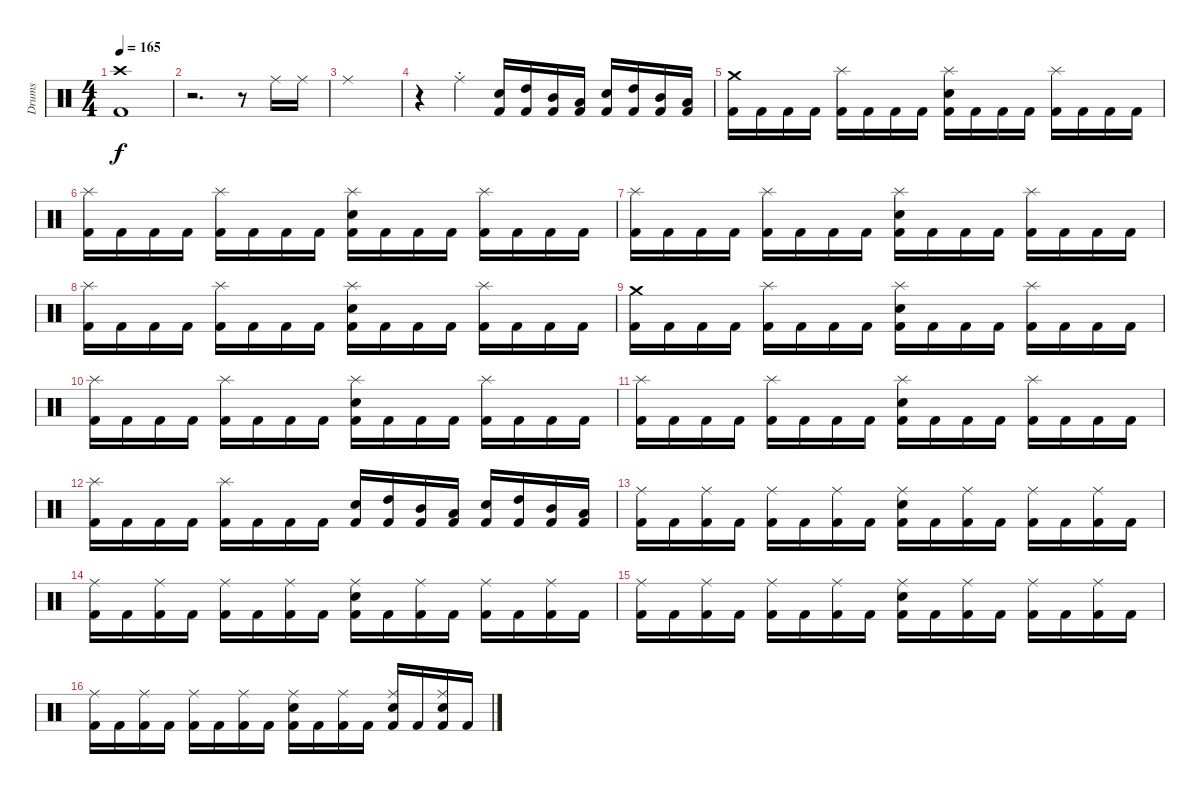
\track ("Drums" "Drums") {instrument percussion}
\staff {score}
\articulation defaults
\ts (4 4)
\tempo 165
\clef neutral
\ks c
("Crash high (hit)" "Kick (hit) 2").1{dy f} |
r.2{d} r.8 "Ride (middle)".16 "Ride (middle)".16 |
"Ride (middle)".1 |
r.4 "Ride (middle)"{st}.4 ("Snare (hit) 2" "Kick (hit) 2").16 ("High Tom (hit)" "Kick (hit) 2").16 ("Mid Tom (hit)" "Kick (hit) 2").16 ("Low Tom (hit)" "Kick (hit) 2").16 ("Snare (hit) 2" "Kick (hit) 2").16 ("High Tom (hit)" "Kick (hit) 2").16 ("Mid Tom (hit)" "Kick (hit) 2").16 ("Low Tom (hit)" "Kick (hit) 2").16 |
("Crash medium (hit)" "Kick (hit) 2").16 "Kick (hit) 2".16 "Kick (hit) 2".16 "Kick (hit) 2".16 ("Splash (hit)" "Kick (hit) 2").16 "Kick (hit) 2".16 "Kick (hit) 2".16 "Kick (hit) 2".16 ("Splash (hit)" "Snare (hit) 2" "Kick (hit) 2").16 "Kick (hit) 2".16 "Kick (hit) 2".16 "Kick (hit) 2".16 ("Splash (hit)" "Kick (hit) 2").16 "Kick (hit) 2".16 "Kick (hit) 2".16 "Kick (hit) 2".16 |
("Splash (hit)" "Kick (hit) 2").16 "Kick (hit) 2".16 "Kick (hit) 2".16 "Kick (hit) 2".16 ("Splash (hit)" "Kick (hit) 2").16 "Kick (hit) 2".16 "Kick (hit) 2".16 "Kick (hit) 2".16 ("Splash (hit)" "Snare (hit) 2" "Kick (hit) 2").16 "Kick (hit) 2".16 "Kick (hit) 2".16 "Kick (hit) 2".16 ("Splash (hit)" "Kick (hit) 2").16 "Kick (hit) 2".16 "Kick (hit) 2".16 "Kick (hit) 2".16 |
("Splash (hit)" "Kick (hit) 2").16 "Kick (hit) 2".16 "Kick (hit) 2".16 "Kick (hit) 2".16 ("Splash (hit)" "Kick (hit) 2").16 "Kick (hit) 2".16 "Kick (hit) 2".16 "Kick (hit) 2".16 ("Splash (hit)" "Snare (hit) 2" "Kick (hit) 2").16 "Kick (hit) 2".16 "Kick (hit) 2".16 "Kick (hit) 2".16 ("Splash (hit)" "Kick (hit) 2").16 "Kick (hit) 2".16 "Kick (hit) 2".16 "Kick (hit) 2".16 |
("Splash (hit)" "Kick (hit) 2").16 "Kick (hit) 2".16 "Kick (hit) 2".16 "Kick (hit) 2".16 ("Splash (hit)" "Kick (hit) 2").16 "Kick (hit) 2".16 "Kick (hit) 2".16 "Kick (hit) 2".16 ("Splash (hit)" "Snare (hit) 2" "Kick (hit) 2").16 "Kick (hit) 2".16 "Kick (hit) 2".16 "Kick (hit) 2".16 ("Splash (hit)" "Kick (hit) 2").16 "Kick (hit) 2".16 "Kick (hit) 2".16 "Kick (hit) 2".16 |
("Crash medium (hit)" "Kick (hit) 2").16 "Kick (hit) 2".16 "Kick (hit) 2".16 "Kick (hit) 2".16 ("Splash (hit)" "Kick (hit) 2").16 "Kick (hit) 2".16 "Kick (hit) 2".16 "Kick (hit) 2".16 ("Splash (hit)" "Snare (hit) 2" "Kick (hit) 2").16 "Kick (hit) 2".16 "Kick (hit) 2".16 "Kick (hit) 2".16 ("Splash (hit)" "Kick (hit) 2").16 "Kick (hit) 2".16 "Kick (hit) 2".16 "Kick (hit) 2".16 |
("Splash (hit)" "Kick (hit) 2").16 "Kick (hit) 2".16 "Kick (hit) 2".16 "Kick (hit) 2".16 ("Splash (hit)" "Kick (hit) 2").16 "Kick (hit) 2".16 "Kick (hit) 2".16 "Kick (hit) 2".16 ("Splash (hit)" "Snare (hit) 2" "Kick (hit) 2").16 "Kick (hit) 2".16 "Kick (hit) 2".16 "Kick (hit) 2".16 ("Splash (hit)" "Kick (hit) 2").16 "Kick (hit) 2".16 "Kick (hit) 2".16 "Kick (hit) 2".16 |
("Splash (hit)" "Kick (hit) 2").16 "Kick (hit) 2".16 "Kick (hit) 2".16 "Kick (hit) 2".16 ("Splash (hit)" "Kick (hit) 2").16 "Kick (hit) 2".16 "Kick (hit) 2".16 "Kick (hit) 2".16 ("Splash (hit)" "Snare (hit) 2" "Kick (hit) 2").16 "Kick (hit) 2".16 "Kick (hit) 2".16 "Kick (hit) 2".16 ("Splash (hit)" "Kick (hit) 2").16 "Kick (hit) 2".16 "Kick (hit) 2".16 "Kick (hit) 2".16 |
("Splash (hit)" "Kick (hit) 2").16 "Kick (hit) 2".16 "Kick (hit) 2".16 "Kick (hit) 2".16 ("Splash (hit)" "Kick (hit) 2").16 "Kick (hit) 2".16 "Kick (hit) 2".16 "Kick (hit) 2".16 ("Snare (hit) 2" "Kick (hit) 2").16 ("High Tom (hit)" "Kick (hit) 2").16 ("Mid Tom (hit)" "Kick (hit) 2").16 ("Low Tom (hit)" "Kick (hit) 2").16 ("Snare (hit) 2" "Kick (hit) 2").16 ("High Tom (hit)" "Kick (hit) 2").16 ("Mid Tom (hit)" "Kick (hit) 2").16 ("Low Tom (hit)" "Kick (hit) 2").16 |
("Ride (middle)" "Kick (hit) 2").16 "Kick (hit) 2".16 ("Ride (middle)" "Kick (hit) 2").16 "Kick (hit) 2".16 ("Ride (middle)" "Kick (hit) 2").16 "Kick (hit) 2".16 ("Ride (middle)" "Kick (hit) 2").16 "Kick (hit) 2".16 ("Ride (middle)" "Snare (hit) 2" "Kick (hit) 2").16 "Kick (hit) 2".16 ("Ride (middle)" "Kick (hit) 2").16 "Kick (hit) 2".16 ("Ride (middle)" "Kick (hit) 2").16 "Kick (hit) 2".16 ("Ride (middle)" "Kick (hit) 2").16 "Kick (hit) 2".16 |
("Ride (middle)" "Kick (hit) 2").16 "Kick (hit) 2".16 ("Ride (middle)" "Kick (hit) 2").16 "Kick (hit) 2".16 ("Ride (middle)" "Kick (hit) 2").16 "Kick (hit) 2".16 ("Ride (middle)" "Kick (hit) 2").16 "Kick (hit) 2".16 ("Ride (middle)" "Snare (hit) 2" "Kick (hit) 2").16 "Kick (hit) 2".16 ("Ride (middle)" "Kick (hit) 2").16 "Kick (hit) 2".16 ("Ride (middle)" "Kick (hit) 2").16 "Kick (hit) 2".16 ("Ride (middle)" "Kick (hit) 2").16 "Kick (hit) 2".16 |
("Ride (middle)" "Kick (hit) 2").16 "Kick (hit) 2".16 ("Ride (middle)" "Kick (hit) 2").16 "Kick (hit) 2".16 ("Ride (middle)" "Kick (hit) 2").16 "Kick (hit) 2".16 ("Ride (middle)" "Kick (hit) 2").16 "Kick (hit) 2".16 ("Ride (middle)" "Snare (hit) 2" "Kick (hit) 2").16 "Kick (hit) 2".16 ("Ride (middle)" "Kick (hit) 2").16 "Kick (hit) 2".16 ("Ride (middle)" "Kick (hit) 2").16 "Kick (hit) 2".16 ("Ride (middle)" "Kick (hit) 2").16 "Kick (hit) 2".16 |
("Ride (middle)" "Kick (hit) 2").16 "Kick (hit) 2".16 ("Ride (middle)" "Kick (hit) 2").16 "Kick (hit) 2".16 ("Ride (middle)" "Kick (hit) 2").16 "Kick (hit) 2".16 ("Ride (middle)" "Kick (hit) 2").16 "Kick (hit) 2".16 ("Ride (middle)" "Snare (hit) 2" "Kick (hit) 2").16 "Kick (hit) 2".16 ("Ride (middle)" "Kick (hit) 2").16 "Kick (hit) 2".16 ("Ride (middle)" "Snare (hit) 2" "Kick (hit) 2").16 "Kick (hit) 2".16 ("Ride (middle)" "Snare (hit) 2" "Kick (hit) 2").16 "Kick (hit) 2".16
